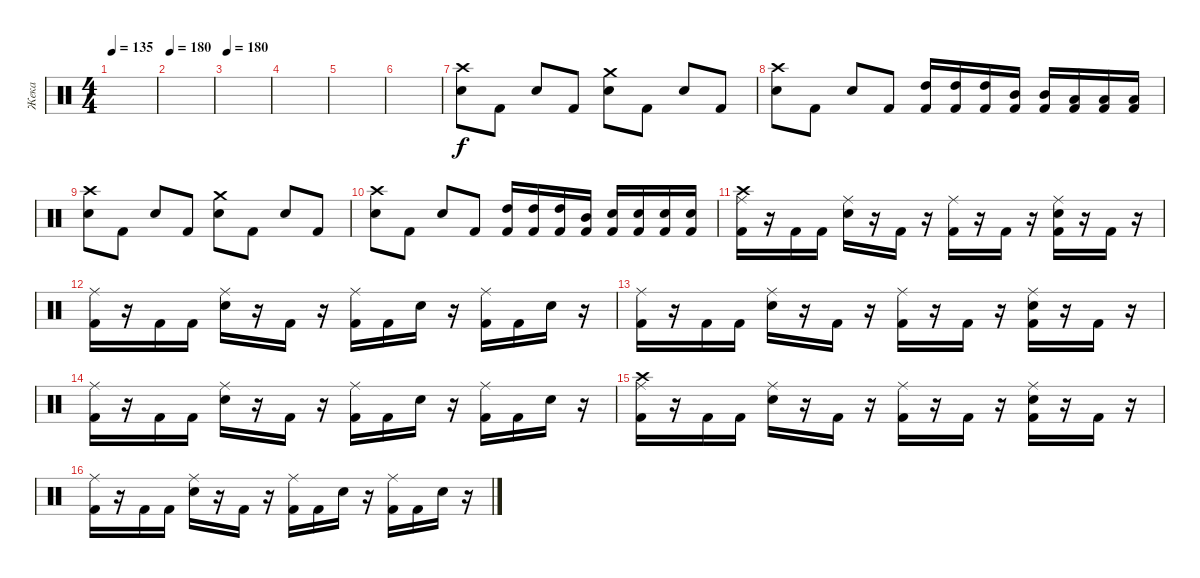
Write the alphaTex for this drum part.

\track ("Жека" "Жека") {instrument percussion}
\staff {score}
\articulation defaults
\ts (4 4)
\tempo 135
\clef neutral
\ks c
|
\tempo 180
|
\tempo 180
|
|
|
|
("Snare (hit) 2" "Crash high (hit)").8{dy f} "Kick (hit) 2".8 "Snare (hit) 2".8 "Kick (hit) 2".8 ("Snare (hit) 2" "Crash medium (hit)").8 "Kick (hit) 2".8 "Snare (hit) 2".8 "Kick (hit) 2".8 |
("Snare (hit) 2" "Crash high (hit)").8 "Kick (hit) 2".8 "Snare (hit) 2".8 "Kick (hit) 2".8 ("High Tom (hit)" "Kick (hit) 2").16 ("High Tom (hit)" "Kick (hit) 2").16 ("High Tom (hit)" "Kick (hit) 2").16 ("Mid Tom (hit)" "Kick (hit) 2").16 ("Mid Tom (hit)" "Kick (hit) 2").16 ("Low Floor Tom (hit)" "Kick (hit) 2").16 ("Low Floor Tom (hit)" "Kick (hit) 2").16 ("Low Floor Tom (hit)" "Kick (hit) 2").16 |
("Snare (hit) 2" "Crash high (hit)").8 "Kick (hit) 2".8 "Snare (hit) 2".8 "Kick (hit) 2".8 ("Snare (hit) 2" "Crash medium (hit)").8 "Kick (hit) 2".8 "Snare (hit) 2".8 "Kick (hit) 2".8 |
("Snare (hit) 2" "Crash high (hit)").8 "Kick (hit) 2".8 "Snare (hit) 2".8 "Kick (hit) 2".8 ("High Tom (hit)" "Kick (hit) 2").16 ("High Tom (hit)" "Kick (hit) 2").16 ("High Tom (hit)" "Kick (hit) 2").16 ("Mid Tom (hit)" "Kick (hit) 2").16 ("Snare (hit) 2" "Kick (hit) 2").16 ("Snare (hit) 2" "Kick (hit) 2").16 ("Snare (hit) 2" "Kick (hit) 2").16 ("Snare (hit) 2" "Kick (hit) 2").16 |
("Kick (hit) 2" "Ride (middle)" "Crash high (hit)").16 r.16 "Kick (hit) 2".16 "Kick (hit) 2".16 ("Ride (middle)" "Snare (hit) 2").16 r.16 "Kick (hit) 2".16 r.16 ("Kick (hit) 2" "Ride (middle)").16 r.16 "Kick (hit) 2".16 r.16 ("Kick (hit) 2" "Ride (middle)" "Snare (hit) 2").16 r.16 "Kick (hit) 2".16 r.16 |
("Kick (hit) 2" "Ride (middle)").16 r.16 "Kick (hit) 2".16 "Kick (hit) 2".16 ("Ride (middle)" "Snare (hit) 2").16 r.16 "Kick (hit) 2".16 r.16 ("Kick (hit) 2" "Ride (middle)").16 "Kick (hit) 2".16 "Snare (hit) 2".16 r.16 ("Kick (hit) 2" "Ride (middle)").16 "Kick (hit) 2".16 "Snare (hit) 2".16 r.16 |
("Kick (hit) 2" "Ride (middle)").16 r.16 "Kick (hit) 2".16 "Kick (hit) 2".16 ("Ride (middle)" "Snare (hit) 2").16 r.16 "Kick (hit) 2".16 r.16 ("Kick (hit) 2" "Ride (middle)").16 r.16 "Kick (hit) 2".16 r.16 ("Kick (hit) 2" "Ride (middle)" "Snare (hit) 2").16 r.16 "Kick (hit) 2".16 r.16 |
("Kick (hit) 2" "Ride (middle)").16 r.16 "Kick (hit) 2".16 "Kick (hit) 2".16 ("Ride (middle)" "Snare (hit) 2").16 r.16 "Kick (hit) 2".16 r.16 ("Kick (hit) 2" "Ride (middle)").16 "Kick (hit) 2".16 "Snare (hit) 2".16 r.16 ("Kick (hit) 2" "Ride (middle)").16 "Kick (hit) 2".16 "Snare (hit) 2".16 r.16 |
("Kick (hit) 2" "Ride (middle)" "Crash high (hit)").16 r.16 "Kick (hit) 2".16 "Kick (hit) 2".16 ("Ride (middle)" "Snare (hit) 2").16 r.16 "Kick (hit) 2".16 r.16 ("Kick (hit) 2" "Ride (middle)").16 r.16 "Kick (hit) 2".16 r.16 ("Kick (hit) 2" "Ride (middle)" "Snare (hit) 2").16 r.16 "Kick (hit) 2".16 r.16 |
("Kick (hit) 2" "Ride (middle)").16 r.16 "Kick (hit) 2".16 "Kick (hit) 2".16 ("Ride (middle)" "Snare (hit) 2").16 r.16 "Kick (hit) 2".16 r.16 ("Kick (hit) 2" "Ride (middle)").16 "Kick (hit) 2".16 "Snare (hit) 2".16 r.16 ("Kick (hit) 2" "Ride (middle)").16 "Kick (hit) 2".16 "Snare (hit) 2".16 r.16
